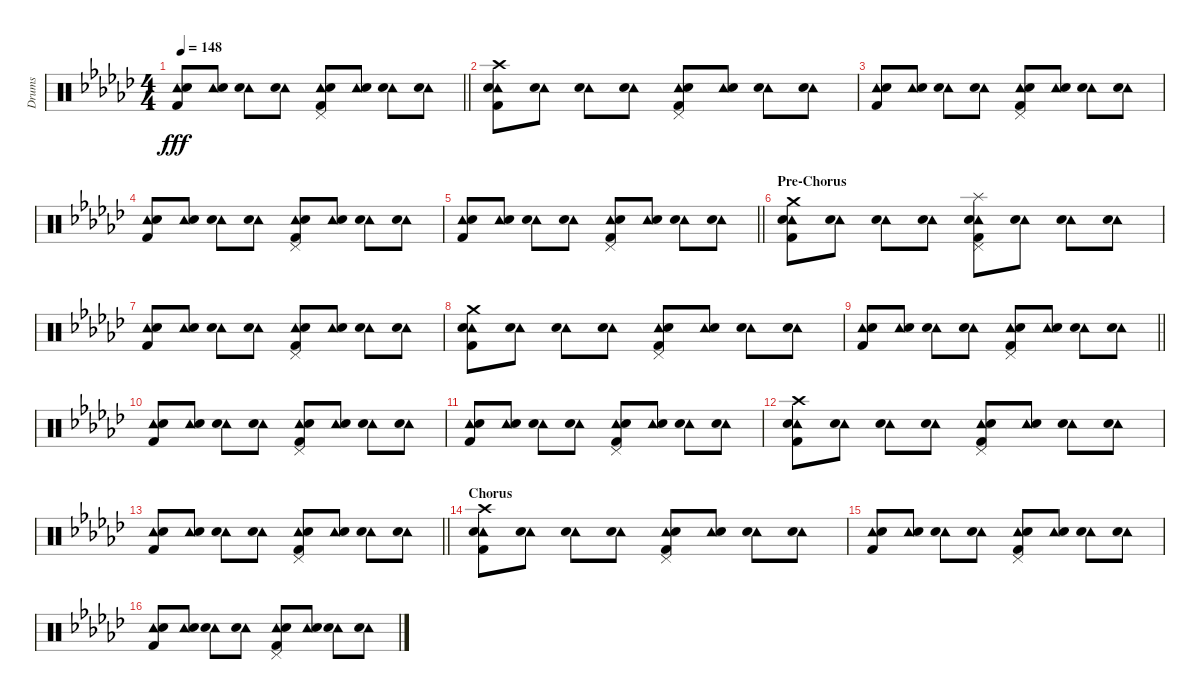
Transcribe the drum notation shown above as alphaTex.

\track ("Drums" "Drums") {instrument percussion}
\staff {score}
\articulation defaults
\ts (4 4)
\tempo 148
\clef neutral
\barLineRight lightlight
\ks gb
("Tambourine (hit)" "Electric Snare (hit)" "Kick (hit) 2").8{dy fff} ("Tambourine (hit)" "Electric Snare (hit)").8 ("Tambourine (hit)" "Electric Snare (hit)").8 ("Tambourine (hit)" "Electric Snare (hit)").8 ("Pedal Hi-Hat (hit)" "Tambourine (hit)" "Electric Snare (hit)" "Kick (hit) 2").8 ("Tambourine (hit)" "Electric Snare (hit)").8 ("Tambourine (hit)" "Electric Snare (hit)").8 ("Tambourine (hit)" "Electric Snare (hit)").8 |
("Crash high (hit)" "Tambourine (hit)" "Electric Snare (hit)" "Kick (hit) 2").8 ("Tambourine (hit)" "Electric Snare (hit)").8 ("Tambourine (hit)" "Electric Snare (hit)").8 ("Tambourine (hit)" "Electric Snare (hit)").8 ("Pedal Hi-Hat (hit)" "Tambourine (hit)" "Electric Snare (hit)" "Kick (hit) 2").8 ("Tambourine (hit)" "Electric Snare (hit)").8 ("Tambourine (hit)" "Electric Snare (hit)").8 ("Tambourine (hit)" "Electric Snare (hit)").8 |
("Tambourine (hit)" "Electric Snare (hit)" "Kick (hit) 2").8 ("Tambourine (hit)" "Electric Snare (hit)").8 ("Tambourine (hit)" "Electric Snare (hit)").8 ("Tambourine (hit)" "Electric Snare (hit)").8 ("Pedal Hi-Hat (hit)" "Tambourine (hit)" "Electric Snare (hit)" "Kick (hit) 2").8 ("Tambourine (hit)" "Electric Snare (hit)").8 ("Tambourine (hit)" "Electric Snare (hit)").8 ("Tambourine (hit)" "Electric Snare (hit)").8 |
("Tambourine (hit)" "Electric Snare (hit)" "Kick (hit) 2").8 ("Tambourine (hit)" "Electric Snare (hit)").8 ("Tambourine (hit)" "Electric Snare (hit)").8 ("Tambourine (hit)" "Electric Snare (hit)").8 ("Pedal Hi-Hat (hit)" "Tambourine (hit)" "Electric Snare (hit)" "Kick (hit) 2").8 ("Tambourine (hit)" "Electric Snare (hit)").8 ("Tambourine (hit)" "Electric Snare (hit)").8 ("Tambourine (hit)" "Electric Snare (hit)").8 |
\barLineRight lightlight
("Tambourine (hit)" "Electric Snare (hit)" "Kick (hit) 2").8 ("Tambourine (hit)" "Electric Snare (hit)").8 ("Tambourine (hit)" "Electric Snare (hit)").8 ("Tambourine (hit)" "Electric Snare (hit)").8 ("Pedal Hi-Hat (hit)" "Tambourine (hit)" "Electric Snare (hit)" "Kick (hit) 2").8 ("Tambourine (hit)" "Electric Snare (hit)").8 ("Tambourine (hit)" "Electric Snare (hit)").8 ("Tambourine (hit)" "Electric Snare (hit)").8 |
\section ("" "Pre-Chorus")
("Crash medium (hit)" "Tambourine (hit)" "Electric Snare (hit)" "Kick (hit) 2").8 ("Tambourine (hit)" "Electric Snare (hit)").8 ("Tambourine (hit)" "Electric Snare (hit)").8 ("Tambourine (hit)" "Electric Snare (hit)").8 ("Splash (hit)" "Pedal Hi-Hat (hit)" "Tambourine (hit)" "Electric Snare (hit)" "Kick (hit) 2").8 ("Tambourine (hit)" "Electric Snare (hit)").8 ("Tambourine (hit)" "Electric Snare (hit)").8 ("Tambourine (hit)" "Electric Snare (hit)").8 |
("Tambourine (hit)" "Electric Snare (hit)" "Kick (hit) 2").8 ("Tambourine (hit)" "Electric Snare (hit)").8 ("Tambourine (hit)" "Electric Snare (hit)").8 ("Tambourine (hit)" "Electric Snare (hit)").8 ("Pedal Hi-Hat (hit)" "Tambourine (hit)" "Electric Snare (hit)" "Kick (hit) 2").8 ("Tambourine (hit)" "Electric Snare (hit)").8 ("Tambourine (hit)" "Electric Snare (hit)").8 ("Tambourine (hit)" "Electric Snare (hit)").8 |
("Crash medium (hit)" "Tambourine (hit)" "Electric Snare (hit)" "Kick (hit) 2").8 ("Tambourine (hit)" "Electric Snare (hit)").8 ("Tambourine (hit)" "Electric Snare (hit)").8 ("Tambourine (hit)" "Electric Snare (hit)").8 ("Pedal Hi-Hat (hit)" "Tambourine (hit)" "Electric Snare (hit)" "Kick (hit) 2").8 ("Tambourine (hit)" "Electric Snare (hit)").8 ("Tambourine (hit)" "Electric Snare (hit)").8 ("Tambourine (hit)" "Electric Snare (hit)").8 |
\barLineRight lightlight
("Tambourine (hit)" "Electric Snare (hit)" "Kick (hit) 2").8 ("Tambourine (hit)" "Electric Snare (hit)").8 ("Tambourine (hit)" "Electric Snare (hit)").8 ("Tambourine (hit)" "Electric Snare (hit)").8 ("Pedal Hi-Hat (hit)" "Tambourine (hit)" "Electric Snare (hit)" "Kick (hit) 2").8 ("Tambourine (hit)" "Electric Snare (hit)").8 ("Tambourine (hit)" "Electric Snare (hit)").8 ("Tambourine (hit)" "Electric Snare (hit)").8 |
("Tambourine (hit)" "Electric Snare (hit)" "Kick (hit) 2").8 ("Tambourine (hit)" "Electric Snare (hit)").8 ("Tambourine (hit)" "Electric Snare (hit)").8 ("Tambourine (hit)" "Electric Snare (hit)").8 ("Pedal Hi-Hat (hit)" "Tambourine (hit)" "Electric Snare (hit)" "Kick (hit) 2").8 ("Tambourine (hit)" "Electric Snare (hit)").8 ("Tambourine (hit)" "Electric Snare (hit)").8 ("Tambourine (hit)" "Electric Snare (hit)").8 |
("Tambourine (hit)" "Electric Snare (hit)" "Kick (hit) 2").8 ("Tambourine (hit)" "Electric Snare (hit)").8 ("Tambourine (hit)" "Electric Snare (hit)").8 ("Tambourine (hit)" "Electric Snare (hit)").8 ("Pedal Hi-Hat (hit)" "Tambourine (hit)" "Electric Snare (hit)" "Kick (hit) 2").8 ("Tambourine (hit)" "Electric Snare (hit)").8 ("Tambourine (hit)" "Electric Snare (hit)").8 ("Tambourine (hit)" "Electric Snare (hit)").8 |
("Crash high (hit)" "Tambourine (hit)" "Electric Snare (hit)" "Kick (hit) 2").8 ("Tambourine (hit)" "Electric Snare (hit)").8 ("Tambourine (hit)" "Electric Snare (hit)").8 ("Tambourine (hit)" "Electric Snare (hit)").8 ("Pedal Hi-Hat (hit)" "Tambourine (hit)" "Electric Snare (hit)" "Kick (hit) 2").8 ("Tambourine (hit)" "Electric Snare (hit)").8 ("Tambourine (hit)" "Electric Snare (hit)").8 ("Tambourine (hit)" "Electric Snare (hit)").8 |
\barLineRight lightlight
("Tambourine (hit)" "Electric Snare (hit)" "Kick (hit) 2").8 ("Tambourine (hit)" "Electric Snare (hit)").8 ("Tambourine (hit)" "Electric Snare (hit)").8 ("Tambourine (hit)" "Electric Snare (hit)").8 ("Pedal Hi-Hat (hit)" "Tambourine (hit)" "Electric Snare (hit)" "Kick (hit) 2").8 ("Tambourine (hit)" "Electric Snare (hit)").8 ("Tambourine (hit)" "Electric Snare (hit)").8 ("Tambourine (hit)" "Electric Snare (hit)").8 |
\section ("" "Chorus")
("Crash high (hit)" "Tambourine (hit)" "Electric Snare (hit)" "Kick (hit) 2").8 ("Tambourine (hit)" "Electric Snare (hit)").8 ("Tambourine (hit)" "Electric Snare (hit)").8 ("Tambourine (hit)" "Electric Snare (hit)").8 ("Pedal Hi-Hat (hit)" "Tambourine (hit)" "Electric Snare (hit)" "Kick (hit) 2").8 ("Tambourine (hit)" "Electric Snare (hit)").8 ("Tambourine (hit)" "Electric Snare (hit)").8 ("Tambourine (hit)" "Electric Snare (hit)").8 |
("Tambourine (hit)" "Electric Snare (hit)" "Kick (hit) 2").8 ("Tambourine (hit)" "Electric Snare (hit)").8 ("Tambourine (hit)" "Electric Snare (hit)").8 ("Tambourine (hit)" "Electric Snare (hit)").8 ("Pedal Hi-Hat (hit)" "Tambourine (hit)" "Electric Snare (hit)" "Kick (hit) 2").8 ("Tambourine (hit)" "Electric Snare (hit)").8 ("Tambourine (hit)" "Electric Snare (hit)").8 ("Tambourine (hit)" "Electric Snare (hit)").8 |
("Tambourine (hit)" "Electric Snare (hit)" "Kick (hit) 2").8 ("Tambourine (hit)" "Electric Snare (hit)").8 ("Tambourine (hit)" "Electric Snare (hit)").8 ("Tambourine (hit)" "Electric Snare (hit)").8 ("Pedal Hi-Hat (hit)" "Tambourine (hit)" "Electric Snare (hit)" "Kick (hit) 2").8 ("Tambourine (hit)" "Electric Snare (hit)").8 ("Tambourine (hit)" "Electric Snare (hit)").8 ("Tambourine (hit)" "Electric Snare (hit)").8
